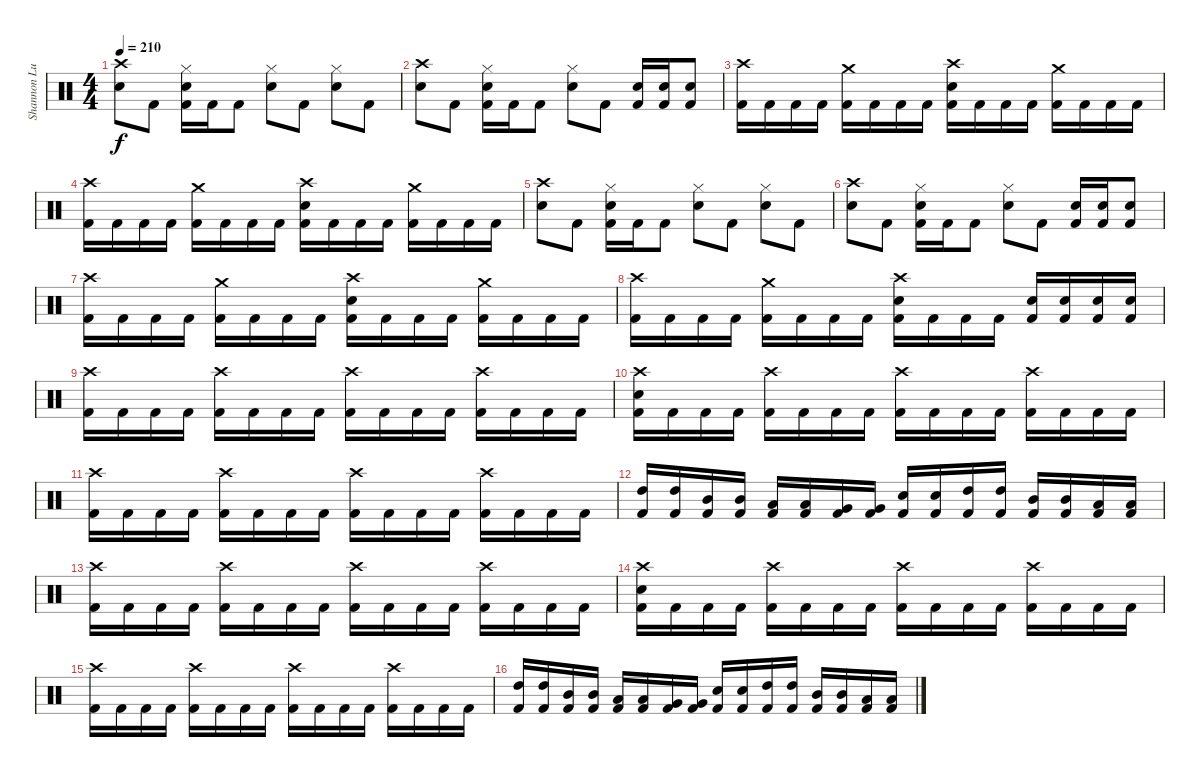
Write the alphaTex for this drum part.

\track ("Shannon Lucas" "Shannon Lu") {instrument percussion}
\staff {score}
\articulation defaults
\ts (4 4)
\tempo 210
\clef neutral
\ks c
("Crash high (hit)" "Electric Snare (hit)").8{dy f} "Kick (hit) 2".8 ("Hi-Hat (closed)" "Electric Snare (hit)" "Kick (hit) 2").16 "Kick (hit) 2".16 "Kick (hit) 2".8 ("Hi-Hat (closed)" "Electric Snare (hit)").8 "Kick (hit) 2".8 ("Hi-Hat (closed)" "Electric Snare (hit)").8 "Kick (hit) 2".8 |
("Crash high (hit)" "Electric Snare (hit)").8 "Kick (hit) 2".8 ("Hi-Hat (closed)" "Electric Snare (hit)" "Kick (hit) 2").16 "Kick (hit) 2".16 "Kick (hit) 2".8 ("Hi-Hat (closed)" "Electric Snare (hit)").8 "Kick (hit) 2".8 ("Electric Snare (hit)" "Kick (hit) 2").16 ("Electric Snare (hit)" "Kick (hit) 2").16 ("Electric Snare (hit)" "Kick (hit) 2").8 |
("Crash high (hit)" "Kick (hit) 2").16 "Kick (hit) 2".16 "Kick (hit) 2".16 "Kick (hit) 2".16 ("Crash medium (hit)" "Kick (hit) 2").16 "Kick (hit) 2".16 "Kick (hit) 2".16 "Kick (hit) 2".16 ("Crash high (hit)" "Electric Snare (hit)" "Kick (hit) 2").16 "Kick (hit) 2".16 "Kick (hit) 2".16 "Kick (hit) 2".16 ("Crash medium (hit)" "Kick (hit) 2").16 "Kick (hit) 2".16 "Kick (hit) 2".16 "Kick (hit) 2".16 |
("Crash high (hit)" "Kick (hit) 2").16 "Kick (hit) 2".16 "Kick (hit) 2".16 "Kick (hit) 2".16 ("Crash medium (hit)" "Kick (hit) 2").16 "Kick (hit) 2".16 "Kick (hit) 2".16 "Kick (hit) 2".16 ("Crash high (hit)" "Electric Snare (hit)" "Kick (hit) 2").16 "Kick (hit) 2".16 "Kick (hit) 2".16 "Kick (hit) 2".16 ("Crash medium (hit)" "Kick (hit) 2").16 "Kick (hit) 2".16 "Kick (hit) 2".16 "Kick (hit) 2".16 |
("Crash high (hit)" "Electric Snare (hit)").8 "Kick (hit) 2".8 ("Hi-Hat (closed)" "Electric Snare (hit)" "Kick (hit) 2").16 "Kick (hit) 2".16 "Kick (hit) 2".8 ("Hi-Hat (closed)" "Electric Snare (hit)").8 "Kick (hit) 2".8 ("Hi-Hat (closed)" "Electric Snare (hit)").8 "Kick (hit) 2".8 |
("Crash high (hit)" "Electric Snare (hit)").8 "Kick (hit) 2".8 ("Hi-Hat (closed)" "Electric Snare (hit)" "Kick (hit) 2").16 "Kick (hit) 2".16 "Kick (hit) 2".8 ("Hi-Hat (closed)" "Electric Snare (hit)").8 "Kick (hit) 2".8 ("Electric Snare (hit)" "Kick (hit) 2").16 ("Electric Snare (hit)" "Kick (hit) 2").16 ("Electric Snare (hit)" "Kick (hit) 2").8 |
("Crash high (hit)" "Kick (hit) 2").16 "Kick (hit) 2".16 "Kick (hit) 2".16 "Kick (hit) 2".16 ("Crash medium (hit)" "Kick (hit) 2").16 "Kick (hit) 2".16 "Kick (hit) 2".16 "Kick (hit) 2".16 ("Crash high (hit)" "Electric Snare (hit)" "Kick (hit) 2").16 "Kick (hit) 2".16 "Kick (hit) 2".16 "Kick (hit) 2".16 ("Crash medium (hit)" "Kick (hit) 2").16 "Kick (hit) 2".16 "Kick (hit) 2".16 "Kick (hit) 2".16 |
("Crash high (hit)" "Kick (hit) 2").16 "Kick (hit) 2".16 "Kick (hit) 2".16 "Kick (hit) 2".16 ("Crash medium (hit)" "Kick (hit) 2").16 "Kick (hit) 2".16 "Kick (hit) 2".16 "Kick (hit) 2".16 ("Crash high (hit)" "Electric Snare (hit)" "Kick (hit) 2").16 "Kick (hit) 2".16 "Kick (hit) 2".16 "Kick (hit) 2".16 ("Electric Snare (hit)" "Kick (hit) 2").16 ("Electric Snare (hit)" "Kick (hit) 2").16 ("Electric Snare (hit)" "Kick (hit) 2").16 ("Electric Snare (hit)" "Kick (hit) 2").16 |
("Crash high (hit)" "Kick (hit) 2").16 "Kick (hit) 2".16 "Kick (hit) 2".16 "Kick (hit) 2".16 ("Crash high (hit)" "Kick (hit) 2").16 "Kick (hit) 2".16 "Kick (hit) 2".16 "Kick (hit) 2".16 ("Crash high (hit)" "Kick (hit) 2").16 "Kick (hit) 2".16 "Kick (hit) 2".16 "Kick (hit) 2".16 ("Crash high (hit)" "Kick (hit) 2").16 "Kick (hit) 2".16 "Kick (hit) 2".16 "Kick (hit) 2".16 |
("Crash high (hit)" "Electric Snare (hit)" "Kick (hit) 2").16 "Kick (hit) 2".16 "Kick (hit) 2".16 "Kick (hit) 2".16 ("Crash high (hit)" "Kick (hit) 2").16 "Kick (hit) 2".16 "Kick (hit) 2".16 "Kick (hit) 2".16 ("Crash high (hit)" "Kick (hit) 2").16 "Kick (hit) 2".16 "Kick (hit) 2".16 "Kick (hit) 2".16 ("Crash high (hit)" "Kick (hit) 2").16 "Kick (hit) 2".16 "Kick (hit) 2".16 "Kick (hit) 2".16 |
("Crash high (hit)" "Kick (hit) 2").16 "Kick (hit) 2".16 "Kick (hit) 2".16 "Kick (hit) 2".16 ("Crash high (hit)" "Kick (hit) 2").16 "Kick (hit) 2".16 "Kick (hit) 2".16 "Kick (hit) 2".16 ("Crash high (hit)" "Kick (hit) 2").16 "Kick (hit) 2".16 "Kick (hit) 2".16 "Kick (hit) 2".16 ("Crash high (hit)" "Kick (hit) 2").16 "Kick (hit) 2".16 "Kick (hit) 2".16 "Kick (hit) 2".16 |
("High Tom (hit)" "Kick (hit) 2").16 ("High Tom (hit)" "Kick (hit) 2").16 ("Mid Tom (hit)" "Kick (hit) 2").16 ("Mid Tom (hit)" "Kick (hit) 2").16 ("Low Tom (hit)" "Kick (hit) 2").16 ("Low Tom (hit)" "Kick (hit) 2").16 ("Very Low Tom (hit)" "Kick (hit) 2").16 ("Very Low Tom (hit)" "Kick (hit) 2").16 ("Electric Snare (hit)" "Kick (hit) 2").16 ("Electric Snare (hit)" "Kick (hit) 2").16 ("High Tom (hit)" "Kick (hit) 2").16 ("High Tom (hit)" "Kick (hit) 2").16 ("Mid Tom (hit)" "Kick (hit) 2").16 ("Mid Tom (hit)" "Kick (hit) 2").16 ("Low Tom (hit)" "Kick (hit) 2").16 ("Low Tom (hit)" "Kick (hit) 2").16 |
("Crash high (hit)" "Kick (hit) 2").16 "Kick (hit) 2".16 "Kick (hit) 2".16 "Kick (hit) 2".16 ("Crash high (hit)" "Kick (hit) 2").16 "Kick (hit) 2".16 "Kick (hit) 2".16 "Kick (hit) 2".16 ("Crash high (hit)" "Kick (hit) 2").16 "Kick (hit) 2".16 "Kick (hit) 2".16 "Kick (hit) 2".16 ("Crash high (hit)" "Kick (hit) 2").16 "Kick (hit) 2".16 "Kick (hit) 2".16 "Kick (hit) 2".16 |
("Crash high (hit)" "Electric Snare (hit)" "Kick (hit) 2").16 "Kick (hit) 2".16 "Kick (hit) 2".16 "Kick (hit) 2".16 ("Crash high (hit)" "Kick (hit) 2").16 "Kick (hit) 2".16 "Kick (hit) 2".16 "Kick (hit) 2".16 ("Crash high (hit)" "Kick (hit) 2").16 "Kick (hit) 2".16 "Kick (hit) 2".16 "Kick (hit) 2".16 ("Crash high (hit)" "Kick (hit) 2").16 "Kick (hit) 2".16 "Kick (hit) 2".16 "Kick (hit) 2".16 |
("Crash high (hit)" "Kick (hit) 2").16 "Kick (hit) 2".16 "Kick (hit) 2".16 "Kick (hit) 2".16 ("Crash high (hit)" "Kick (hit) 2").16 "Kick (hit) 2".16 "Kick (hit) 2".16 "Kick (hit) 2".16 ("Crash high (hit)" "Kick (hit) 2").16 "Kick (hit) 2".16 "Kick (hit) 2".16 "Kick (hit) 2".16 ("Crash high (hit)" "Kick (hit) 2").16 "Kick (hit) 2".16 "Kick (hit) 2".16 "Kick (hit) 2".16 |
("High Tom (hit)" "Kick (hit) 2").16 ("High Tom (hit)" "Kick (hit) 2").16 ("Mid Tom (hit)" "Kick (hit) 2").16 ("Mid Tom (hit)" "Kick (hit) 2").16 ("Low Tom (hit)" "Kick (hit) 2").16 ("Low Tom (hit)" "Kick (hit) 2").16 ("Very Low Tom (hit)" "Kick (hit) 2").16 ("Very Low Tom (hit)" "Kick (hit) 2").16 ("Electric Snare (hit)" "Kick (hit) 2").16 ("Electric Snare (hit)" "Kick (hit) 2").16 ("High Tom (hit)" "Kick (hit) 2").16 ("High Tom (hit)" "Kick (hit) 2").16 ("Mid Tom (hit)" "Kick (hit) 2").16 ("Mid Tom (hit)" "Kick (hit) 2").16 ("Low Tom (hit)" "Kick (hit) 2").16 ("Low Tom (hit)" "Kick (hit) 2").16
